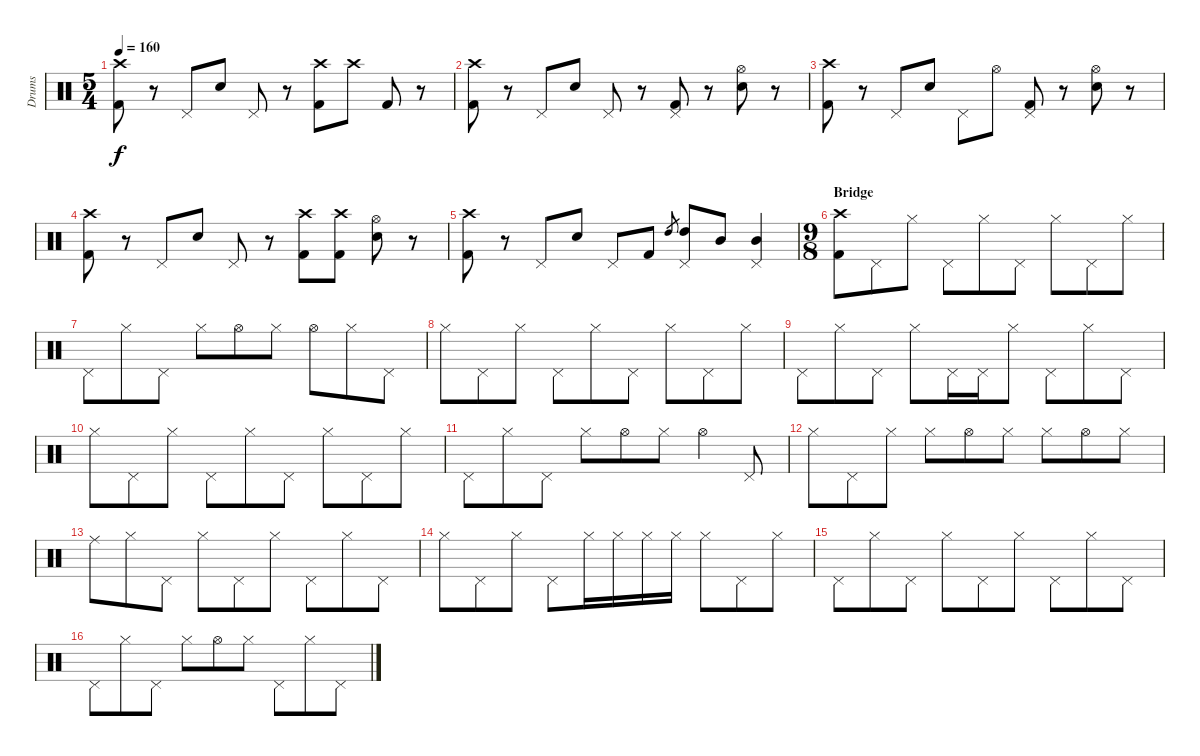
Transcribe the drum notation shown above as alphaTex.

\track ("Drums" "Drums") {instrument percussion}
\staff {score}
\articulation defaults
\ts (5 4)
\tempo 160
\clef neutral
\ks c
("Crash high (hit)" "Kick (hit) 2").8{dy f} r.8 "Pedal Hi-Hat (hit)".8 "Electric Snare (hit)".8 "Pedal Hi-Hat (hit)".8 r.8 ("Crash high (hit)" "Kick (hit) 2").8 "Crash high (hit)".8 "Kick (hit) 2".8 r.8 |
("Crash high (hit)" "Kick (hit) 2").8 r.8 "Pedal Hi-Hat (hit)".8 "Electric Snare (hit)".8 "Pedal Hi-Hat (hit)".8 r.8 ("Pedal Hi-Hat (hit)" "Kick (hit) 2").8 r.8 ("Hi-Hat (open)" "Electric Snare (hit)").8 r.8 |
("Crash high (hit)" "Kick (hit) 2").8 r.8 "Pedal Hi-Hat (hit)".8 "Electric Snare (hit)".8 "Pedal Hi-Hat (hit)".8 "Hi-Hat (open)".8 ("Pedal Hi-Hat (hit)" "Kick (hit) 2").8 r.8 ("Hi-Hat (open)" "Electric Snare (hit)").8 r.8 |
("Crash high (hit)" "Kick (hit) 2").8 r.8 "Pedal Hi-Hat (hit)".8 "Electric Snare (hit)".8 "Pedal Hi-Hat (hit)".8 r.8 ("Crash high (hit)" "Kick (hit) 2").8 ("Crash high (hit)" "Kick (hit) 2").8 ("Hi-Hat (open)" "Electric Snare (hit)").8 r.8 |
("Crash high (hit)" "Kick (hit) 2").8 r.8 "Pedal Hi-Hat (hit)".8 "Electric Snare (hit)".8 "Pedal Hi-Hat (hit)".8 "Kick (hit) 2".8 "High Tom (hit)".8{gr} ("Pedal Hi-Hat (hit)" "High Tom (hit)").8 "Mid Tom (hit)".8 ("Pedal Hi-Hat (hit)" "Mid Tom (hit)").4 |
\ts (9 8)
\section ("" "Bridge")
("Crash high (hit)" "Kick (hit) 2").8 "Pedal Hi-Hat (hit)".8 "Hi-Hat (closed)".8 "Pedal Hi-Hat (hit)".8 "Hi-Hat (closed)".8 "Pedal Hi-Hat (hit)".8 "Hi-Hat (closed)".8 "Pedal Hi-Hat (hit)".8 "Hi-Hat (closed)".8 |
"Pedal Hi-Hat (hit)".8 "Hi-Hat (closed)".8 "Pedal Hi-Hat (hit)".8 "Hi-Hat (closed)".8 "Hi-Hat (open)".8 "Hi-Hat (closed)".8 "Hi-Hat (open)".8 "Hi-Hat (closed)".8 "Pedal Hi-Hat (hit)".8 |
"Hi-Hat (closed)".8 "Pedal Hi-Hat (hit)".8 "Hi-Hat (closed)".8 "Pedal Hi-Hat (hit)".8 "Hi-Hat (closed)".8 "Pedal Hi-Hat (hit)".8 "Hi-Hat (closed)".8 "Pedal Hi-Hat (hit)".8 "Hi-Hat (closed)".8 |
"Pedal Hi-Hat (hit)".8 "Hi-Hat (closed)".8 "Pedal Hi-Hat (hit)".8 "Hi-Hat (closed)".8 "Pedal Hi-Hat (hit)".16 "Pedal Hi-Hat (hit)".16 "Hi-Hat (closed)".8 "Pedal Hi-Hat (hit)".8 "Hi-Hat (closed)".8 "Pedal Hi-Hat (hit)".8 |
"Hi-Hat (closed)".8 "Pedal Hi-Hat (hit)".8 "Hi-Hat (closed)".8 "Pedal Hi-Hat (hit)".8 "Hi-Hat (closed)".8 "Pedal Hi-Hat (hit)".8 "Hi-Hat (closed)".8 "Pedal Hi-Hat (hit)".8 "Hi-Hat (closed)".8 |
"Pedal Hi-Hat (hit)".8 "Hi-Hat (closed)".8 "Pedal Hi-Hat (hit)".8 "Hi-Hat (closed)".8 "Hi-Hat (open)".8 "Hi-Hat (closed)".8 "Hi-Hat (open)".4 "Pedal Hi-Hat (hit)".8 |
"Hi-Hat (closed)".8 "Pedal Hi-Hat (hit)".8 "Hi-Hat (closed)".8 "Hi-Hat (closed)".8 "Hi-Hat (open)".8 "Hi-Hat (closed)".8 "Hi-Hat (closed)".8 "Hi-Hat (open)".8 "Hi-Hat (closed)".8 |
"Ride (middle)".8 "Hi-Hat (closed)".8 "Pedal Hi-Hat (hit)".8 "Hi-Hat (closed)".8 "Pedal Hi-Hat (hit)".8 "Hi-Hat (closed)".8 "Pedal Hi-Hat (hit)".8 "Hi-Hat (closed)".8 "Pedal Hi-Hat (hit)".8 |
"Hi-Hat (closed)".8 "Pedal Hi-Hat (hit)".8 "Hi-Hat (closed)".8 "Pedal Hi-Hat (hit)".8 "Hi-Hat (closed)".16 "Hi-Hat (closed)".16 "Hi-Hat (closed)".16 "Hi-Hat (closed)".16 "Hi-Hat (closed)".8 "Pedal Hi-Hat (hit)".8 "Hi-Hat (closed)".8 |
"Pedal Hi-Hat (hit)".8 "Hi-Hat (closed)".8 "Pedal Hi-Hat (hit)".8 "Hi-Hat (closed)".8 "Pedal Hi-Hat (hit)".8 "Hi-Hat (closed)".8 "Pedal Hi-Hat (hit)".8 "Hi-Hat (closed)".8 "Pedal Hi-Hat (hit)".8 |
"Pedal Hi-Hat (hit)".8 "Hi-Hat (closed)".8 "Pedal Hi-Hat (hit)".8 "Hi-Hat (closed)".8 "Hi-Hat (open)".8 "Hi-Hat (closed)".8 "Pedal Hi-Hat (hit)".8 "Hi-Hat (closed)".8 "Pedal Hi-Hat (hit)".8
